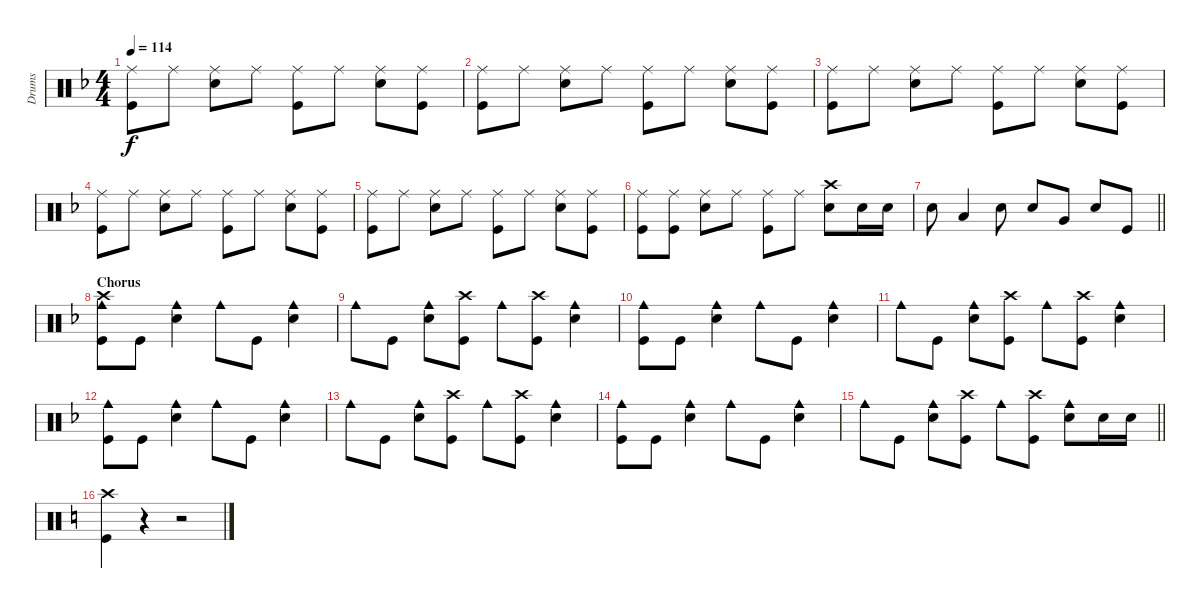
\track ("Drums" "Drums") {instrument percussion}
\staff {score}
\articulation defaults
\ts (4 4)
\tempo 114
\clef neutral
\ks dminor
("Ride (middle)" "Kick (hit)").8{dy f} "Ride (middle)".8 ("Ride (middle)" "Snare (hit) 2").8 "Ride (middle)".8 ("Ride (middle)" "Kick (hit)").8 "Ride (middle)".8 ("Ride (middle)" "Snare (hit) 2").8 ("Ride (middle)" "Kick (hit)").8 |
("Ride (middle)" "Kick (hit)").8 "Ride (middle)".8 ("Ride (middle)" "Snare (hit) 2").8 "Ride (middle)".8 ("Ride (middle)" "Kick (hit)").8 "Ride (middle)".8 ("Ride (middle)" "Snare (hit) 2").8 ("Ride (middle)" "Kick (hit)").8 |
("Ride (middle)" "Kick (hit)").8 "Ride (middle)".8 ("Ride (middle)" "Snare (hit) 2").8 "Ride (middle)".8 ("Ride (middle)" "Kick (hit)").8 "Ride (middle)".8 ("Ride (middle)" "Snare (hit) 2").8 ("Ride (middle)" "Kick (hit)").8 |
("Ride (middle)" "Kick (hit)").8 "Ride (middle)".8 ("Ride (middle)" "Snare (hit) 2").8 "Ride (middle)".8 ("Ride (middle)" "Kick (hit)").8 "Ride (middle)".8 ("Ride (middle)" "Snare (hit) 2").8 ("Ride (middle)" "Kick (hit)").8 |
("Ride (middle)" "Kick (hit)").8 "Ride (middle)".8 ("Ride (middle)" "Snare (hit) 2").8 "Ride (middle)".8 ("Ride (middle)" "Kick (hit)").8 "Ride (middle)".8 ("Ride (middle)" "Snare (hit) 2").8 ("Ride (middle)" "Kick (hit)").8 |
("Ride (middle)" "Kick (hit)").8 ("Ride (middle)" "Kick (hit)").8 ("Ride (middle)" "Snare (hit) 2").8 "Ride (middle)".8 ("Ride (middle)" "Kick (hit)").8 "Ride (middle)".8 ("Crash high (hit)" "Snare (hit) 2").8 "Snare (hit) 2".16 "Snare (hit) 2".16 |
\barLineRight lightlight "Snare (hit) 2".8 "Low Tom (hit)".4 "Snare (hit) 2".8 "Snare (hit) 2".8 "Very Low Tom (hit)".8 "Snare (hit) 2".8 "Kick (hit)".8
|
\section ("" "Chorus")
("Cowbell medium (hit)" "Crash high (hit)" "Kick (hit)").8 "Kick (hit)".8 ("Cowbell medium (hit)" "Snare (hit) 2").4 "Cowbell medium (hit)".8 "Kick (hit)".8 ("Cowbell medium (hit)" "Snare (hit) 2").4 |
"Cowbell medium (hit)".8 "Kick (hit)".8 ("Cowbell medium (hit)" "Snare (hit) 2").8 ("Crash high (hit)" "Kick (hit)").8 "Cowbell medium (hit)".8 ("Crash high (hit)" "Kick (hit)").8 ("Cowbell medium (hit)" "Snare (hit) 2").4 |
("Cowbell medium (hit)" "Kick (hit)").8 "Kick (hit)".8 ("Cowbell medium (hit)" "Snare (hit) 2").4 "Cowbell medium (hit)".8 "Kick (hit)".8 ("Cowbell medium (hit)" "Snare (hit) 2").4 |
"Cowbell medium (hit)".8 "Kick (hit)".8 ("Cowbell medium (hit)" "Snare (hit) 2").8 ("Crash high (hit)" "Kick (hit)").8 "Cowbell medium (hit)".8 ("Crash high (hit)" "Kick (hit)").8 ("Cowbell medium (hit)" "Snare (hit) 2").4 |
("Cowbell medium (hit)" "Kick (hit)").8 "Kick (hit)".8 ("Cowbell medium (hit)" "Snare (hit) 2").4 "Cowbell medium (hit)".8 "Kick (hit)".8 ("Cowbell medium (hit)" "Snare (hit) 2").4 |
"Cowbell medium (hit)".8 "Kick (hit)".8 ("Cowbell medium (hit)" "Snare (hit) 2").8 ("Crash high (hit)" "Kick (hit)").8 "Cowbell medium (hit)".8 ("Crash high (hit)" "Kick (hit)").8 ("Cowbell medium (hit)" "Snare (hit) 2").4 |
("Cowbell medium (hit)" "Kick (hit)").8 "Kick (hit)".8 ("Cowbell medium (hit)" "Snare (hit) 2").4 "Cowbell medium (hit)".8 "Kick (hit)".8 ("Cowbell medium (hit)" "Snare (hit) 2").4 |
\barLineRight lightlight "Cowbell medium (hit)".8 "Kick (hit)".8
("Cowbell medium (hit)" "Snare (hit) 2").8 ("Crash high (hit)" "Kick (hit)").8 "Cowbell medium (hit)".8 ("Crash high (hit)" "Kick (hit)").8 ("Cowbell medium (hit)" "Snare (hit) 2").8 "Snare (hit) 2".16 "Snare (hit) 2".16 |
\ks aminor
("Crash high (hit)" "Kick (hit)").4 r.4 r.2
